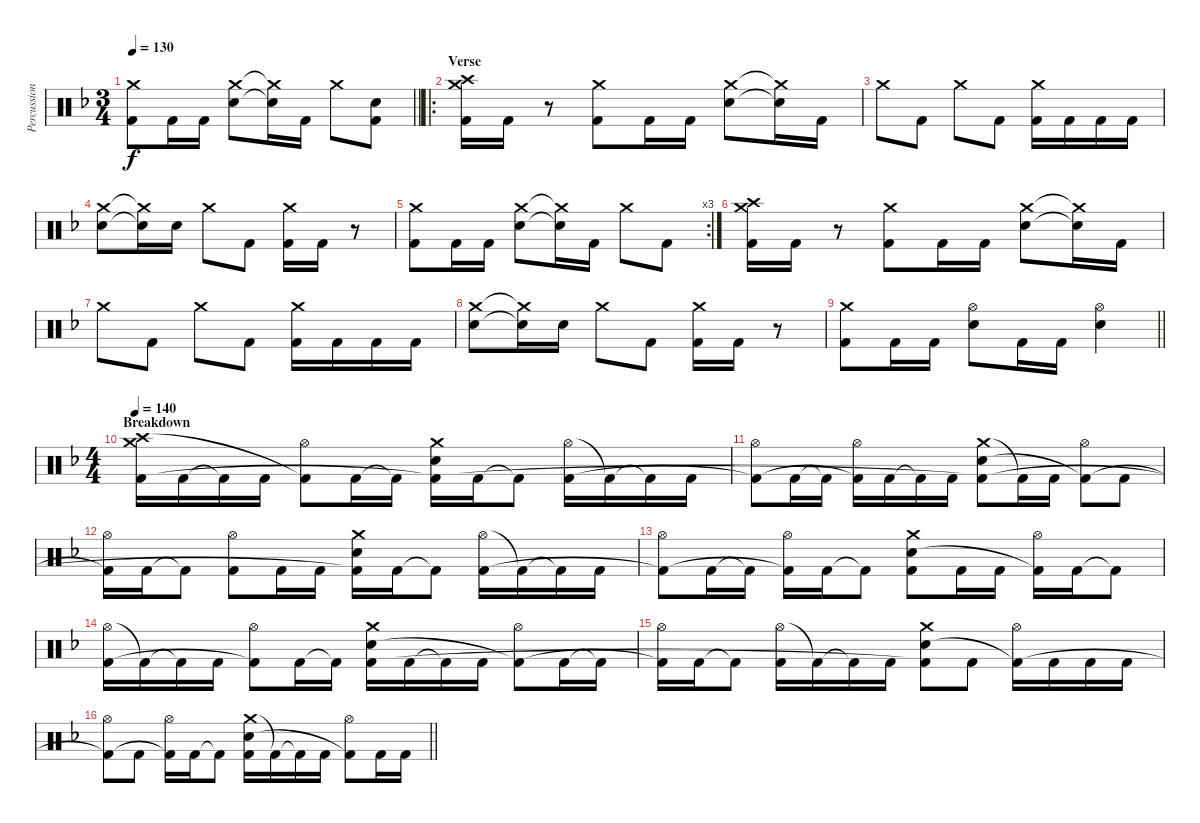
\track ("Percussion" "Percussion") {instrument percussion}
\staff {score}
\articulation defaults
\ts (3 4)
\tempo 130
\clef neutral
\barLineRight lightlight
\ks f
("Crash medium (hit)" "Kick (hit) 2").8{dy f} "Kick (hit) 2".16 "Kick (hit) 2".16 ("Crash medium (hit)" "Electric Snare (hit)").8 ("Crash medium (hit)"{t} "Electric Snare (hit)"{t}).16 "Kick (hit) 2".16 "Crash medium (hit)".8 ("Electric Snare (hit)" "Kick (hit) 2").8 |
\ro
\section ("" "Verse")
("Crash medium (hit)" "Crash high (hit)" "Kick (hit) 2").16 "Kick (hit) 2".16 r.8 ("Crash medium (hit)" "Kick (hit) 2").8 "Kick (hit) 2".16 "Kick (hit) 2".16 ("Crash medium (hit)" "Electric Snare (hit)").8 ("Crash medium (hit)"{t} "Electric Snare (hit)"{t}).16 "Kick (hit) 2".16 |
"Crash medium (hit)".8 "Kick (hit) 2".8 "Crash medium (hit)".8 "Kick (hit) 2".8 ("Crash medium (hit)" "Kick (hit) 2").16 "Kick (hit) 2".16 "Kick (hit) 2".16 "Kick (hit) 2".16 |
("Crash medium (hit)" "Electric Snare (hit)").8 ("Crash medium (hit)"{t} "Electric Snare (hit)"{t}).16 "Electric Snare (hit)".16 "Crash medium (hit)".8 "Kick (hit) 2".8 ("Crash medium (hit)" "Kick (hit) 2").16 "Kick (hit) 2".16 r.8 |
\rc 3
("Crash medium (hit)" "Kick (hit) 2").8 "Kick (hit) 2".16 "Kick (hit) 2".16 ("Crash medium (hit)" "Electric Snare (hit)").8 ("Crash medium (hit)"{t} "Electric Snare (hit)"{t}).16 "Kick (hit) 2".16 "Crash medium (hit)".8 "Kick (hit) 2".8 |
("Crash medium (hit)" "Crash high (hit)" "Kick (hit) 2").16 "Kick (hit) 2".16 r.8 ("Crash medium (hit)" "Kick (hit) 2").8 "Kick (hit) 2".16 "Kick (hit) 2".16 ("Crash medium (hit)" "Electric Snare (hit)").8 ("Crash medium (hit)"{t} "Electric Snare (hit)"{t}).16 "Kick (hit) 2".16 |
"Crash medium (hit)".8 "Kick (hit) 2".8 "Crash medium (hit)".8 "Kick (hit) 2".8 ("Crash medium (hit)" "Kick (hit) 2").16 "Kick (hit) 2".16 "Kick (hit) 2".16 "Kick (hit) 2".16 |
("Crash medium (hit)" "Electric Snare (hit)").8 ("Crash medium (hit)"{t} "Electric Snare (hit)"{t}).16 "Electric Snare (hit)".16 "Crash medium (hit)".8 "Kick (hit) 2".8 ("Crash medium (hit)" "Kick (hit) 2").16 "Kick (hit) 2".16 r.8 |
\barLineRight lightlight
("Crash medium (hit)" "Kick (hit) 2").8 "Kick (hit) 2".16 "Kick (hit) 2".16 ("Hi-Hat (open)" "Electric Snare (hit)").8 "Kick (hit) 2".16 "Kick (hit) 2".16 ("Hi-Hat (open)" "Electric Snare (hit)").4 |
\ts (4 4)
\section ("" "Breakdown")
\tempo 140
("Crash medium (hit)" "Crash high (hit)" "Kick (hit) 2").16{volume 14} "Kick (hit) 2".16 "Kick (hit) 2"{t}.16 "Kick (hit) 2".16 ("Hi-Hat (open)" "Kick (hit) 2"{t}).8 "Kick (hit) 2".16 "Kick (hit) 2"{t}.16 ("Crash medium (hit)" "Electric Snare (hit)" "Kick (hit) 2"{t}).16 "Kick (hit) 2".16 "Kick (hit) 2"{t}.8 ("Hi-Hat (open)" "Kick (hit) 2").16 "Kick (hit) 2"{t}.16 "Kick (hit) 2"{t}.16 "Kick (hit) 2".16 |
("Hi-Hat (open)" "Kick (hit) 2"{t}).8 "Kick (hit) 2".16 "Kick (hit) 2"{t}.16 ("Hi-Hat (open)" "Kick (hit) 2"{t}).16 "Kick (hit) 2".16 "Kick (hit) 2"{t}.16 "Kick (hit) 2".16 ("Crash medium (hit)" "Electric Snare (hit)" "Kick (hit) 2"{t}).8 "Kick (hit) 2"{t}.16 "Kick (hit) 2".16 ("Hi-Hat (open)" "Kick (hit) 2"{t}).8 "Kick (hit) 2".8 |
("Hi-Hat (open)" "Kick (hit) 2"{t}).16 "Kick (hit) 2".16 "Kick (hit) 2"{t}.8 ("Hi-Hat (open)" "Kick (hit) 2").8 "Kick (hit) 2".16 "Kick (hit) 2".16 ("Crash medium (hit)" "Electric Snare (hit)" "Kick (hit) 2"{t}).16 "Kick (hit) 2".16 "Kick (hit) 2"{t}.8 ("Hi-Hat (open)" "Kick (hit) 2").16 "Kick (hit) 2"{t}.16 "Kick (hit) 2"{t}.16 "Kick (hit) 2".16 |
("Hi-Hat (open)" "Kick (hit) 2"{t}).8 "Kick (hit) 2".16 "Kick (hit) 2"{t}.16 ("Hi-Hat (open)" "Kick (hit) 2"{t}).16 "Kick (hit) 2".16 "Kick (hit) 2"{t}.8 ("Crash medium (hit)" "Electric Snare (hit)" "Kick (hit) 2").8 "Kick (hit) 2".16 "Kick (hit) 2".16 ("Hi-Hat (open)" "Kick (hit) 2"{t}).16 "Kick (hit) 2".16 "Kick (hit) 2"{t}.8 |
("Hi-Hat (open)" "Kick (hit) 2").16 "Kick (hit) 2"{t}.16 "Kick (hit) 2"{t}.16 "Kick (hit) 2".16 ("Hi-Hat (open)" "Kick (hit) 2"{t}).8 "Kick (hit) 2".16 "Kick (hit) 2"{t}.16 ("Crash medium (hit)" "Electric Snare (hit)" "Kick (hit) 2").16 "Kick (hit) 2".16 "Kick (hit) 2"{t}.16 "Kick (hit) 2".16 ("Hi-Hat (open)" "Kick (hit) 2"{t}).8 "Kick (hit) 2".16 "Kick (hit) 2"{t}.16 |
("Hi-Hat (open)" "Kick (hit) 2"{t}).16 "Kick (hit) 2".16 "Kick (hit) 2"{t}.8 ("Hi-Hat (open)" "Kick (hit) 2").16 "Kick (hit) 2"{t}.16 "Kick (hit) 2"{t}.16 "Kick (hit) 2".16 ("Crash medium (hit)" "Electric Snare (hit)" "Kick (hit) 2"{t}).8 "Kick (hit) 2".8 ("Hi-Hat (open)" "Kick (hit) 2"{t}).16 "Kick (hit) 2".16 "Kick (hit) 2".16 "Kick (hit) 2".16 |
\barLineRight lightlight
("Hi-Hat (open)" "Kick (hit) 2"{t}).8 "Kick (hit) 2".8 ("Hi-Hat (open)" "Kick (hit) 2"{t}).16 "Kick (hit) 2".16 "Kick (hit) 2"{t}.8 ("Crash medium (hit)" "Electric Snare (hit)" "Kick (hit) 2").16 "Kick (hit) 2"{t}.16 "Kick (hit) 2"{t}.16 "Kick (hit) 2".16 ("Hi-Hat (open)" "Kick (hit) 2"{t}).8 "Kick (hit) 2".16 "Kick (hit) 2".16
